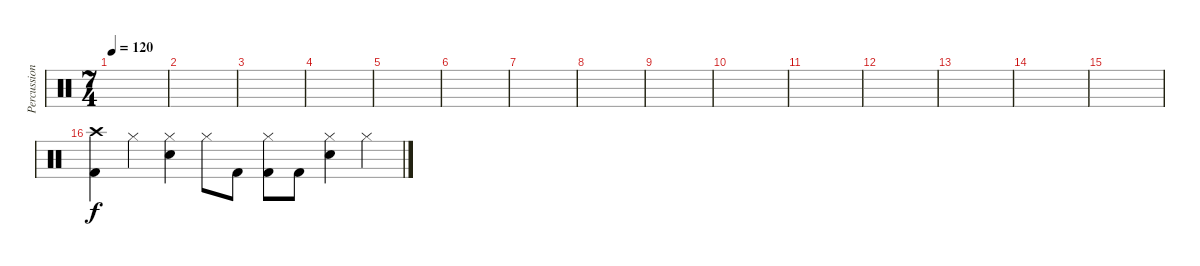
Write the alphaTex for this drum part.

\track ("Percussion" "Percussion") {instrument percussion}
\staff {score}
\articulation defaults
\ts (7 4)
\tempo 120
\clef neutral
\ks c
|
|
|
|
|
|
|
|
|
|
|
|
|
|
|
("Crash high (hit)" "Kick (hit) 2").4 "Hi-Hat (closed)".4 ("Hi-Hat (closed)" "Electric Snare (hit)").4 "Hi-Hat (closed)".8 "Kick (hit) 2".8 ("Hi-Hat (closed)" "Kick (hit) 2").8 "Kick (hit) 2".8 ("Hi-Hat (closed)" "Electric Snare (hit)").4 "Hi-Hat (closed)".4
